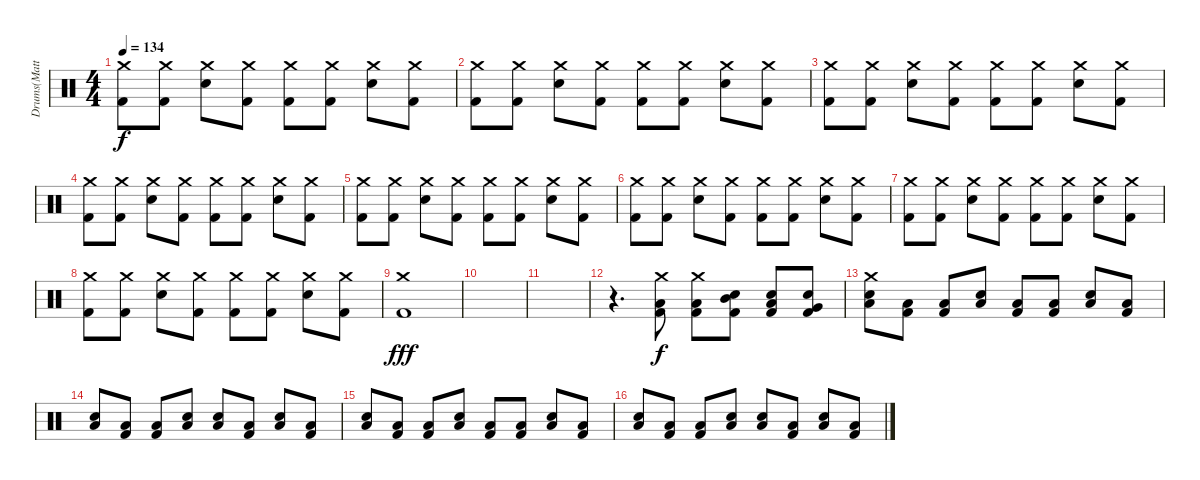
\track ("Drums(Matthias)" "Drums(Matt") {instrument percussion}
\staff {score}
\articulation defaults
\ts (4 4)
\tempo 134
\clef neutral
\ks c
("Crash medium (hit)" "Kick (hit) 2").8{dy f} ("Crash medium (hit)" "Kick (hit) 2").8 ("Crash medium (hit)" "Snare (hit) 2").8 ("Crash medium (hit)" "Kick (hit) 2").8 ("Crash medium (hit)" "Kick (hit) 2").8 ("Crash medium (hit)" "Kick (hit) 2").8 ("Crash medium (hit)" "Snare (hit) 2").8 ("Crash medium (hit)" "Kick (hit) 2").8 |
("Crash medium (hit)" "Kick (hit) 2").8 ("Crash medium (hit)" "Kick (hit) 2").8 ("Crash medium (hit)" "Snare (hit) 2").8 ("Crash medium (hit)" "Kick (hit) 2").8 ("Crash medium (hit)" "Kick (hit) 2").8 ("Crash medium (hit)" "Kick (hit) 2").8 ("Crash medium (hit)" "Snare (hit) 2").8 ("Crash medium (hit)" "Kick (hit) 2").8 |
("Crash medium (hit)" "Kick (hit) 2").8 ("Crash medium (hit)" "Kick (hit) 2").8 ("Crash medium (hit)" "Snare (hit) 2").8 ("Crash medium (hit)" "Kick (hit) 2").8 ("Crash medium (hit)" "Kick (hit) 2").8 ("Crash medium (hit)" "Kick (hit) 2").8 ("Crash medium (hit)" "Snare (hit) 2").8 ("Crash medium (hit)" "Kick (hit) 2").8 |
("Crash medium (hit)" "Kick (hit) 2").8 ("Crash medium (hit)" "Kick (hit) 2").8 ("Crash medium (hit)" "Snare (hit) 2").8 ("Crash medium (hit)" "Kick (hit) 2").8 ("Crash medium (hit)" "Kick (hit) 2").8 ("Crash medium (hit)" "Kick (hit) 2").8 ("Crash medium (hit)" "Snare (hit) 2").8 ("Crash medium (hit)" "Kick (hit) 2").8 |
("Crash medium (hit)" "Kick (hit) 2").8 ("Crash medium (hit)" "Kick (hit) 2").8 ("Crash medium (hit)" "Snare (hit) 2").8 ("Crash medium (hit)" "Kick (hit) 2").8 ("Crash medium (hit)" "Kick (hit) 2").8 ("Crash medium (hit)" "Kick (hit) 2").8 ("Crash medium (hit)" "Snare (hit) 2").8 ("Crash medium (hit)" "Kick (hit) 2").8 |
("Crash medium (hit)" "Kick (hit) 2").8 ("Crash medium (hit)" "Kick (hit) 2").8 ("Crash medium (hit)" "Snare (hit) 2").8 ("Crash medium (hit)" "Kick (hit) 2").8 ("Crash medium (hit)" "Kick (hit) 2").8 ("Crash medium (hit)" "Kick (hit) 2").8 ("Crash medium (hit)" "Snare (hit) 2").8 ("Crash medium (hit)" "Kick (hit) 2").8 |
("Crash medium (hit)" "Kick (hit) 2").8 ("Crash medium (hit)" "Kick (hit) 2").8 ("Crash medium (hit)" "Snare (hit) 2").8 ("Crash medium (hit)" "Kick (hit) 2").8 ("Crash medium (hit)" "Kick (hit) 2").8 ("Crash medium (hit)" "Kick (hit) 2").8 ("Crash medium (hit)" "Snare (hit) 2").8 ("Crash medium (hit)" "Kick (hit) 2").8 |
("Crash medium (hit)" "Kick (hit) 2").8 ("Crash medium (hit)" "Kick (hit) 2").8 ("Crash medium (hit)" "Snare (hit) 2").8 ("Crash medium (hit)" "Kick (hit) 2").8 ("Crash medium (hit)" "Kick (hit) 2").8 ("Crash medium (hit)" "Kick (hit) 2").8 ("Crash medium (hit)" "Snare (hit) 2").8 ("Crash medium (hit)" "Kick (hit) 2").8 |
("Crash medium (hit)" "Kick (hit) 2").1{dy fff} |
|
|
r.4{d} ("Crash medium (hit)" "Low Tom (hit)" "Kick (hit) 2").8{dy f volume 10} ("Crash medium (hit)" "Low Tom (hit)" "Kick (hit) 2").8 ("Snare (hit) 2" "Mid Tom (hit)" "Kick (hit) 2").8 ("Snare (hit) 2" "Low Tom (hit)" "Kick (hit) 2").8 ("Snare (hit) 2" "Very Low Tom (hit)" "Kick (hit) 2").8 |
("Crash medium (hit)" "Low Tom (hit)" "Snare (hit) 2").8 ("Low Tom (hit)" "Kick (hit) 2").8 ("Low Tom (hit)" "Kick (hit) 2").8 ("Low Tom (hit)" "Snare (hit) 2").8 ("Low Tom (hit)" "Kick (hit) 2").8 ("Low Tom (hit)" "Kick (hit) 2").8 ("Low Tom (hit)" "Snare (hit) 2").8 ("Low Tom (hit)" "Kick (hit) 2").8 |
("Low Tom (hit)" "Snare (hit) 2").8 ("Low Tom (hit)" "Kick (hit) 2").8 ("Low Tom (hit)" "Kick (hit) 2").8 ("Low Tom (hit)" "Snare (hit) 2").8 ("Low Tom (hit)" "Snare (hit) 2").8 ("Low Tom (hit)" "Kick (hit) 2").8 ("Low Tom (hit)" "Snare (hit) 2").8 ("Low Tom (hit)" "Kick (hit) 2").8 |
("Low Tom (hit)" "Snare (hit) 2").8 ("Low Tom (hit)" "Kick (hit) 2").8 ("Low Tom (hit)" "Kick (hit) 2").8 ("Low Tom (hit)" "Snare (hit) 2").8 ("Low Tom (hit)" "Kick (hit) 2").8 ("Low Tom (hit)" "Kick (hit) 2").8 ("Low Tom (hit)" "Snare (hit) 2").8 ("Low Tom (hit)" "Kick (hit) 2").8 |
("Low Tom (hit)" "Snare (hit) 2").8 ("Low Tom (hit)" "Kick (hit) 2").8 ("Low Tom (hit)" "Kick (hit) 2").8 ("Low Tom (hit)" "Snare (hit) 2").8 ("Low Tom (hit)" "Snare (hit) 2").8 ("Low Tom (hit)" "Kick (hit) 2").8 ("Low Tom (hit)" "Snare (hit) 2").8 ("Low Tom (hit)" "Kick (hit) 2").8
